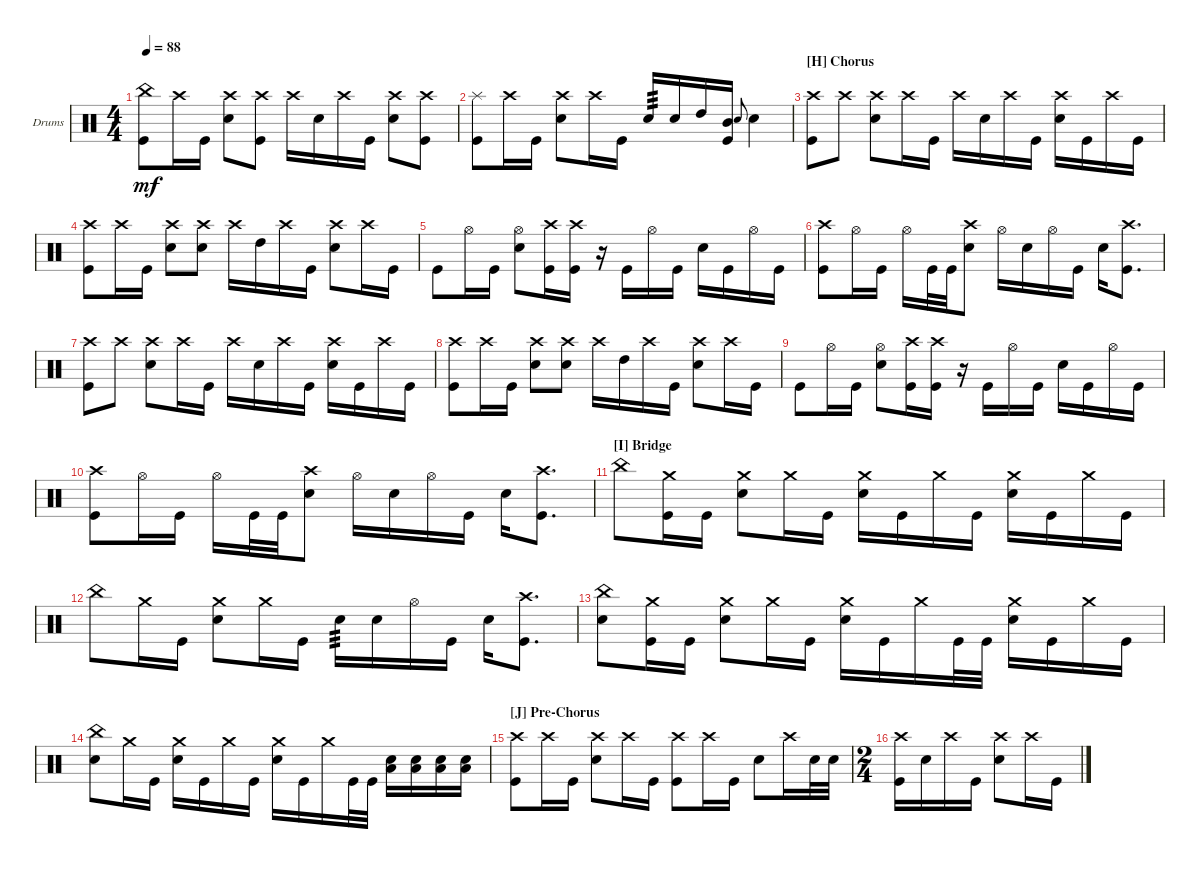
\defaultSystemsLayout 4
\bracketExtendMode groupsimilarinstruments
\firstSystemTrackNameOrientation horizontal
\otherSystemsTrackNameOrientation horizontal
\track ("Drumkit" "Drums") {instrument percussion}
\staff {score}
\articulation defaults
\ts (4 4)
\tempo 88
\clef neutral
\scale
0.472222
\ks c
("China (hit)" "Kick (hit)").8{dy mf} "Crash high (hit)".16 "Kick (hit)".16 ("Snare (hit) 2" "Crash high (hit)").8 ("Crash high (hit)" "Kick (hit)").8 "Crash high (hit)".16 "Snare (hit) 2".16 "Crash high (hit)".16 "Kick (hit)".16 ("Snare (hit) 2" "Crash high (hit)").8 ("Crash high (hit)" "Kick (hit)").8 |
\scale
0.263889 ("Splash (hit)" "Kick (hit)").8 "Crash high (hit)".16 "Kick (hit)".16 ("Snare (hit) 2" "Crash high (hit)").8 "Crash high (hit)".16 "Kick (hit)".16 "Snare (hit) 2".16{tp 3} "Snare (hit) 2".16 "High Tom (hit)".16 ("Kick (hit)" "Mid Tom (hit)").16 "Snare (hit) 2".8{gr onbeat} "Snare (hit) 2".4 |
\section ("H" "Chorus")
\scale
0.263889 ("Kick (hit)" "Crash high (hit)").8 "Crash high (hit)".8 ("Crash high (hit)" "Snare (hit) 2").8 "Crash high (hit)".16 "Kick (hit)".16 "Crash high (hit)".16 "Snare (hit) 2".16 "Crash high (hit)".16 "Kick (hit)".16 ("Snare (hit) 2" "Crash high (hit)").16 "Kick (hit)".16 "Crash high (hit)".16 "Kick (hit)".16 |
\scale
0.333333 ("Crash high (hit)" "Kick (hit)").8 "Crash high (hit)".16 "Kick (hit)".16 ("Snare (hit) 2" "Crash high (hit)").8 ("Snare (hit) 2" "Crash high (hit)").8 "Crash high (hit)".16 "High Tom (hit)".16 "Crash high (hit)".16 "Kick (hit)".16 ("Snare (hit) 2" "Crash high (hit)").8 "Crash high (hit)".16 "Kick (hit)".16 |
\scale
0.333333 "Kick (hit)".8 "Hi-Hat (open)".16 "Kick (hit)".16 ("Snare (hit) 2" "Hi-Hat (open)").8 ("Kick (hit)" "Crash high (hit)").16 ("Kick (hit)" "Crash high (hit)").16 r.16 "Kick (hit)".16 "Hi-Hat (open)".16 "Kick (hit)".16 "Snare (hit) 2".16 "Kick (hit)".16 "Hi-Hat (open)".16 "Kick (hit)".16 |
\scale
0.333333 ("Kick (hit)" "Crash high (hit)").8 "Hi-Hat (open)".16 "Kick (hit)".16 "Hi-Hat (open)".16 "Kick (hit)".32 "Kick (hit)".32 ("Snare (hit) 2" "Crash high (hit)").8 "Hi-Hat (open)".16 "Snare (hit) 2".16 "Hi-Hat (open)".16 "Kick (hit)".16 "Snare (hit) 2".16 ("Kick (hit)" "Crash high (hit)").8{d} |
\scale
0.333333 ("Kick (hit)" "Crash high (hit)").8 "Crash high (hit)".8 ("Crash high (hit)" "Snare (hit) 2").8 "Crash high (hit)".16 "Kick (hit)".16 "Crash high (hit)".16 "Snare (hit) 2".16 "Crash high (hit)".16 "Kick (hit)".16 ("Snare (hit) 2" "Crash high (hit)").16 "Kick (hit)".16 "Crash high (hit)".16 "Kick (hit)".16 |
\scale
0.333333 ("Crash high (hit)" "Kick (hit)").8 "Crash high (hit)".16 "Kick (hit)".16 ("Snare (hit) 2" "Crash high (hit)").8 ("Snare (hit) 2" "Crash high (hit)").8 "Crash high (hit)".16 "High Tom (hit)".16 "Crash high (hit)".16 "Kick (hit)".16 ("Snare (hit) 2" "Crash high (hit)").8 "Crash high (hit)".16 "Kick (hit)".16 |
\scale
0.333333 "Kick (hit)".8 "Hi-Hat (open)".16 "Kick (hit)".16 ("Snare (hit) 2" "Hi-Hat (open)").8 ("Kick (hit)" "Crash high (hit)").16 ("Kick (hit)" "Crash high (hit)").16 r.16 "Kick (hit)".16 "Hi-Hat (open)".16 "Kick (hit)".16 "Snare (hit) 2".16 "Kick (hit)".16 "Hi-Hat (open)".16 "Kick (hit)".16 |
\scale
0.333333 ("Kick (hit)" "Crash high (hit)").8 "Hi-Hat (open)".16 "Kick (hit)".16 "Hi-Hat (open)".16 "Kick (hit)".32 "Kick (hit)".32 ("Snare (hit) 2" "Crash high (hit)").8 "Hi-Hat (open)".16 "Snare (hit) 2".16 "Hi-Hat (open)".16 "Kick (hit)".16 "Snare (hit) 2".16 ("Kick (hit)" "Crash high (hit)").8{d} |
\section ("I" "Bridge")
\scale
0.333333 "China (hit)".8 ("Kick (hit)" "Crash medium (hit)").16 "Kick (hit)".16 ("Snare (hit) 2" "Crash medium (hit)").8 "Crash medium (hit)".16 "Kick (hit)".16 ("Crash medium (hit)" "Snare (hit) 2").16 "Kick (hit)".16 "Crash medium (hit)".16 "Kick (hit)".16 ("Snare (hit) 2" "Crash medium (hit)").16 "Kick (hit)".16 "Crash medium (hit)".16 "Kick (hit)".16 |
\scale
0.333333 "China (hit)".8 "Crash medium (hit)".16 "Kick (hit)".16 ("Snare (hit) 2" "Crash medium (hit)").8 "Crash medium (hit)".16 "Kick (hit)".16 "Snare (hit) 2".16{tp 3} "Snare (hit) 2".16 "Hi-Hat (open)".16 "Kick (hit)".16 "Snare (hit) 2".16 ("Kick (hit)" "Crash high (hit)").8{d} |
\scale
0.333333 ("China (hit)" "Snare (hit) 2").8 ("Kick (hit)" "Crash medium (hit)").16 "Kick (hit)".16 ("Snare (hit) 2" "Crash medium (hit)").8 "Crash medium (hit)".16 "Kick (hit)".16 ("Snare (hit) 2" "Crash medium (hit)").16 "Kick (hit)".16 "Crash medium (hit)".16 "Kick (hit)".32 "Kick (hit)".32 ("Snare (hit) 2" "Crash medium (hit)").16 "Kick (hit)".16 "Crash medium (hit)".16 "Kick (hit)".16 |
\scale
0.333333 ("Snare (hit) 2" "China (hit)").8 "Crash medium (hit)".16 "Kick (hit)".16 ("Snare (hit) 2" "Crash medium (hit)").16 "Kick (hit)".16 "Crash medium (hit)".16 "Kick (hit)".16 ("Snare (hit) 2" "Crash medium (hit)").16 "Kick (hit)".16 "Crash medium (hit)".16 "Kick (hit)".32 "Kick (hit)".32 ("Snare (hit) 2" "Low Tom (hit)").16 ("Snare (hit) 2" "Low Tom (hit)").16 ("Snare (hit) 2" "Low Tom (hit)").16 ("Snare (hit) 2" "Low Tom (hit)").16 |
\section ("J" "Pre-Chorus")
\scale
0.333333 ("Crash high (hit)" "Kick (hit)").8 "Crash high (hit)".16 "Kick (hit)".16 ("Snare (hit) 2" "Crash high (hit)").8 "Crash high (hit)".16 "Kick (hit)".16 ("Crash high (hit)" "Kick (hit)").8 "Crash high (hit)".16 "Kick (hit)".16 "Snare (hit) 2".8 "Crash high (hit)".16 "Snare (hit) 2".32 "Snare (hit) 2".32 |
\ts (2 4)
\scale
0.390805 ("Kick (hit)" "Crash high (hit)").16 "Snare (hit) 2".16 "Crash high (hit)".16 "Kick (hit)".16 ("Snare (hit) 2" "Crash high (hit)").8 "Crash high (hit)".16 "Kick (hit)".16
